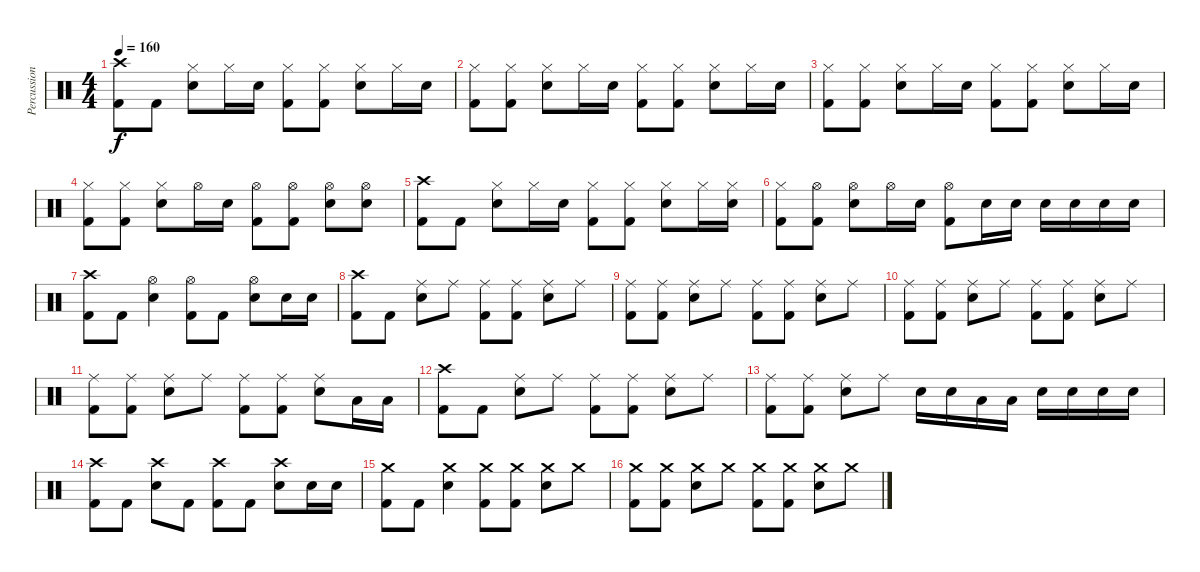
\track ("Percussion" "Percussion") {instrument percussion}
\staff {score}
\articulation defaults
\ts (4 4)
\tempo 160
\clef neutral
\ks c
("Crash high (hit)" "Kick (hit) 2").8{dy f} "Kick (hit) 2".8 ("Hi-Hat (closed)" "Electric Snare (hit)").8 "Hi-Hat (closed)".16 "Electric Snare (hit)".16 ("Hi-Hat (closed)" "Kick (hit) 2").8 ("Hi-Hat (closed)" "Kick (hit) 2").8 ("Hi-Hat (closed)" "Electric Snare (hit)").8 "Hi-Hat (closed)".16 "Electric Snare (hit)".16 |
("Hi-Hat (closed)" "Kick (hit) 2").8 ("Hi-Hat (closed)" "Kick (hit) 2").8 ("Hi-Hat (closed)" "Electric Snare (hit)").8 "Hi-Hat (closed)".16 "Electric Snare (hit)".16 ("Hi-Hat (closed)" "Kick (hit) 2").8 ("Hi-Hat (closed)" "Kick (hit) 2").8 ("Hi-Hat (closed)" "Electric Snare (hit)").8 "Hi-Hat (closed)".16 "Electric Snare (hit)".16 |
("Hi-Hat (closed)" "Kick (hit) 2").8 ("Hi-Hat (closed)" "Kick (hit) 2").8 ("Hi-Hat (closed)" "Electric Snare (hit)").8 "Hi-Hat (closed)".16 "Electric Snare (hit)".16 ("Hi-Hat (closed)" "Kick (hit) 2").8 ("Hi-Hat (closed)" "Kick (hit) 2").8 ("Hi-Hat (closed)" "Electric Snare (hit)").8 "Hi-Hat (closed)".16 "Electric Snare (hit)".16 |
("Hi-Hat (closed)" "Kick (hit) 2").8 ("Hi-Hat (closed)" "Kick (hit) 2").8 ("Hi-Hat (closed)" "Electric Snare (hit)").8 "Hi-Hat (open)".16 "Electric Snare (hit)".16 ("Hi-Hat (open)" "Kick (hit) 2").8 ("Hi-Hat (open)" "Kick (hit) 2").8 ("Hi-Hat (open)" "Electric Snare (hit)").8 ("Hi-Hat (open)" "Electric Snare (hit)").8 |
("Crash high (hit)" "Kick (hit) 2").8 "Kick (hit) 2".8 ("Hi-Hat (closed)" "Electric Snare (hit)").8 "Hi-Hat (closed)".16 "Electric Snare (hit)".16 ("Hi-Hat (closed)" "Kick (hit) 2").8 ("Hi-Hat (closed)" "Kick (hit) 2").8 ("Hi-Hat (closed)" "Electric Snare (hit)").8 "Hi-Hat (closed)".16 ("Hi-Hat (closed)" "Electric Snare (hit)").16 |
("Hi-Hat (closed)" "Kick (hit) 2").8 ("Hi-Hat (open)" "Kick (hit) 2").8 ("Hi-Hat (open)" "Electric Snare (hit)").8 "Hi-Hat (open)".16 "Electric Snare (hit)".16 ("Hi-Hat (open)" "Kick (hit) 2").8 "Electric Snare (hit)".16 "Electric Snare (hit)".16 "Electric Snare (hit)".16 "Electric Snare (hit)".16 "Electric Snare (hit)".16 "Electric Snare (hit)".16 |
("Crash high (hit)" "Kick (hit) 2").8 "Kick (hit) 2".8 ("Hi-Hat (open)" "Electric Snare (hit)").4 ("Hi-Hat (open)" "Kick (hit) 2").8 "Kick (hit) 2".8 ("Hi-Hat (open)" "Electric Snare (hit)").8 "Electric Snare (hit)".16 "Electric Snare (hit)".16 |
("Crash high (hit)" "Kick (hit) 2").8 "Kick (hit) 2".8 ("Ride (middle)" "Electric Snare (hit)").8 "Ride (middle)".8 ("Ride (middle)" "Kick (hit) 2").8 ("Ride (middle)" "Kick (hit) 2").8 ("Ride (middle)" "Electric Snare (hit)").8 "Ride (middle)".8 |
("Ride (middle)" "Kick (hit) 2").8 ("Ride (middle)" "Kick (hit) 2").8 ("Ride (middle)" "Electric Snare (hit)").8 "Ride (middle)".8 ("Ride (middle)" "Kick (hit) 2").8 ("Ride (middle)" "Kick (hit) 2").8 ("Ride (middle)" "Electric Snare (hit)").8 "Ride (middle)".8 |
("Ride (middle)" "Kick (hit) 2").8 ("Ride (middle)" "Kick (hit) 2").8 ("Ride (middle)" "Electric Snare (hit)").8 "Ride (middle)".8 ("Ride (middle)" "Kick (hit) 2").8 ("Ride (middle)" "Kick (hit) 2").8 ("Ride (middle)" "Electric Snare (hit)").8 "Ride (middle)".8 |
("Ride (middle)" "Kick (hit) 2").8 ("Ride (middle)" "Kick (hit) 2").8 ("Ride (middle)" "Electric Snare (hit)").8 "Ride (middle)".8 ("Ride (middle)" "Kick (hit) 2").8 ("Ride (middle)" "Kick (hit) 2").8 ("Ride (middle)" "Electric Snare (hit)").8 "Low Tom (hit)".16 "Low Tom (hit)".16 |
("Crash high (hit)" "Kick (hit) 2").8 "Kick (hit) 2".8 ("Ride (middle)" "Electric Snare (hit)").8 "Ride (middle)".8 ("Ride (middle)" "Kick (hit) 2").8 ("Ride (middle)" "Kick (hit) 2").8 ("Ride (middle)" "Electric Snare (hit)").8 "Ride (middle)".8 |
("Ride (middle)" "Kick (hit) 2").8 ("Ride (middle)" "Kick (hit) 2").8 ("Ride (middle)" "Electric Snare (hit)").8 "Ride (middle)".8 "Electric Snare (hit)".16 "Electric Snare (hit)".16 "Low Tom (hit)".16 "Low Tom (hit)".16 "Electric Snare (hit)".16 "Electric Snare (hit)".16 "Electric Snare (hit)".16 "Electric Snare (hit)".16 |
("Crash high (hit)" "Kick (hit) 2").8 "Kick (hit) 2".8 ("Crash high (hit)" "Electric Snare (hit)").8 "Kick (hit) 2".8 ("Crash high (hit)" "Kick (hit) 2").8 "Kick (hit) 2".8 ("Crash high (hit)" "Electric Snare (hit)").8 "Electric Snare (hit)".16 "Electric Snare (hit)".16 |
("Crash medium (hit)" "Kick (hit) 2").8 "Kick (hit) 2".8 ("Crash medium (hit)" "Electric Snare (hit)").4 ("Crash medium (hit)" "Kick (hit) 2").8 ("Crash medium (hit)" "Kick (hit) 2").8 ("Crash medium (hit)" "Electric Snare (hit)").8 "Crash medium (hit)".8 |
("Crash medium (hit)" "Kick (hit) 2").8 ("Crash medium (hit)" "Kick (hit) 2").8 ("Crash medium (hit)" "Electric Snare (hit)").8 "Crash medium (hit)".8 ("Crash medium (hit)" "Kick (hit) 2").8 ("Crash medium (hit)" "Kick (hit) 2").8 ("Crash medium (hit)" "Electric Snare (hit)").8 "Crash medium (hit)".8
